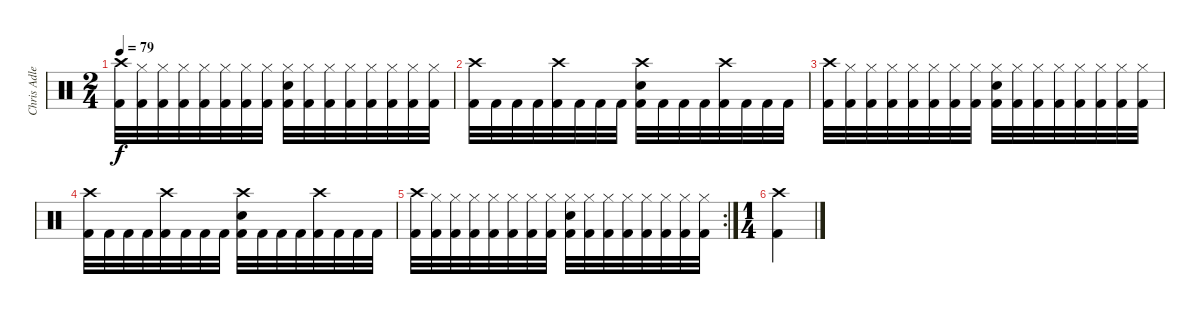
\track ("Chris Adler" "Chris Adle") {instrument percussion}
\staff {score}
\articulation defaults
\ts (2 4)
\tempo 79
\clef neutral
\ks c
("Crash high (hit)" "Kick (hit) 2").32{dy f} ("Hi-Hat (closed)" "Kick (hit) 2").32 ("Hi-Hat (closed)" "Kick (hit) 2").32 ("Hi-Hat (closed)" "Kick (hit) 2").32 ("Hi-Hat (closed)" "Kick (hit) 2").32 ("Hi-Hat (closed)" "Kick (hit) 2").32 ("Hi-Hat (closed)" "Kick (hit) 2").32 ("Hi-Hat (closed)" "Kick (hit) 2").32 ("Hi-Hat (closed)" "Electric Snare (hit)" "Kick (hit) 2").32 ("Hi-Hat (closed)" "Kick (hit) 2").32 ("Hi-Hat (closed)" "Kick (hit) 2").32 ("Hi-Hat (closed)" "Kick (hit) 2").32 ("Hi-Hat (closed)" "Kick (hit) 2").32 ("Hi-Hat (closed)" "Kick (hit) 2").32 ("Hi-Hat (closed)" "Kick (hit) 2").32 ("Hi-Hat (closed)" "Kick (hit) 2").32 |
("Crash high (hit)" "Kick (hit) 2").32 "Kick (hit) 2".32 "Kick (hit) 2".32 "Kick (hit) 2".32 ("Crash high (hit)" "Kick (hit) 2").32 "Kick (hit) 2".32 "Kick (hit) 2".32 "Kick (hit) 2".32 ("Crash high (hit)" "Electric Snare (hit)" "Kick (hit) 2").32 "Kick (hit) 2".32 "Kick (hit) 2".32 "Kick (hit) 2".32 ("Crash high (hit)" "Kick (hit) 2").32 "Kick (hit) 2".32 "Kick (hit) 2".32 "Kick (hit) 2".32 |
("Crash high (hit)" "Kick (hit) 2").32 ("Hi-Hat (closed)" "Kick (hit) 2").32 ("Hi-Hat (closed)" "Kick (hit) 2").32 ("Hi-Hat (closed)" "Kick (hit) 2").32 ("Hi-Hat (closed)" "Kick (hit) 2").32 ("Hi-Hat (closed)" "Kick (hit) 2").32 ("Hi-Hat (closed)" "Kick (hit) 2").32 ("Hi-Hat (closed)" "Kick (hit) 2").32 ("Hi-Hat (closed)" "Electric Snare (hit)" "Kick (hit) 2").32 ("Hi-Hat (closed)" "Kick (hit) 2").32 ("Hi-Hat (closed)" "Kick (hit) 2").32 ("Hi-Hat (closed)" "Kick (hit) 2").32 ("Hi-Hat (closed)" "Kick (hit) 2").32 ("Hi-Hat (closed)" "Kick (hit) 2").32 ("Hi-Hat (closed)" "Kick (hit) 2").32 ("Hi-Hat (closed)" "Kick (hit) 2").32 |
("Crash high (hit)" "Kick (hit) 2").32 "Kick (hit) 2".32 "Kick (hit) 2".32 "Kick (hit) 2".32 ("Crash high (hit)" "Kick (hit) 2").32 "Kick (hit) 2".32 "Kick (hit) 2".32 "Kick (hit) 2".32 ("Crash high (hit)" "Electric Snare (hit)" "Kick (hit) 2").32 "Kick (hit) 2".32 "Kick (hit) 2".32 "Kick (hit) 2".32 ("Crash high (hit)" "Kick (hit) 2").32 "Kick (hit) 2".32 "Kick (hit) 2".32 "Kick (hit) 2".32 |
\rc 2
("Crash high (hit)" "Kick (hit) 2").32 ("Hi-Hat (closed)" "Kick (hit) 2").32 ("Hi-Hat (closed)" "Kick (hit) 2").32 ("Hi-Hat (closed)" "Kick (hit) 2").32 ("Hi-Hat (closed)" "Kick (hit) 2").32 ("Hi-Hat (closed)" "Kick (hit) 2").32 ("Hi-Hat (closed)" "Kick (hit) 2").32 ("Hi-Hat (closed)" "Kick (hit) 2").32 ("Hi-Hat (closed)" "Electric Snare (hit)" "Kick (hit) 2").32 ("Hi-Hat (closed)" "Kick (hit) 2").32 ("Hi-Hat (closed)" "Kick (hit) 2").32 ("Hi-Hat (closed)" "Kick (hit) 2").32 ("Hi-Hat (closed)" "Kick (hit) 2").32 ("Hi-Hat (closed)" "Kick (hit) 2").32 ("Hi-Hat (closed)" "Kick (hit) 2").32 ("Hi-Hat (closed)" "Kick (hit) 2").32 |
\ts (1 4)
("Crash high (hit)" "Kick (hit) 2").4
